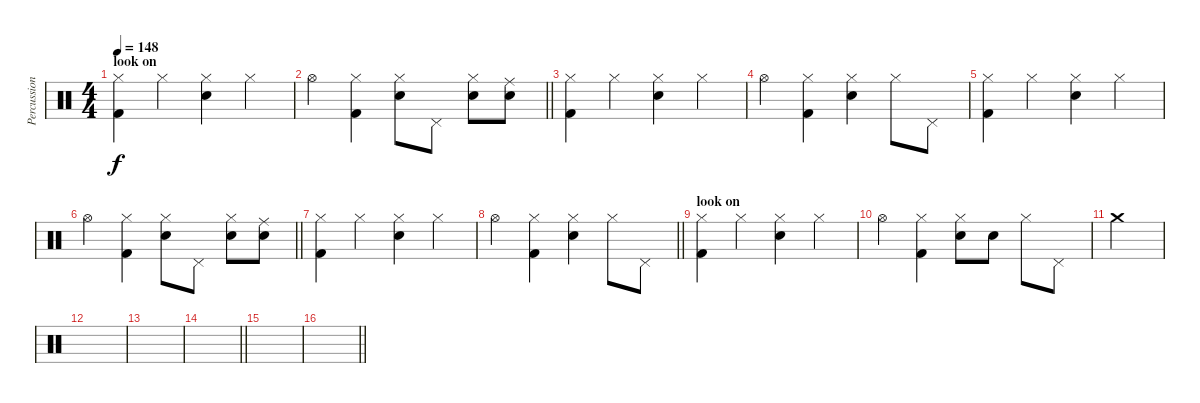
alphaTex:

\track ("Percussions" "Percussion") {instrument percussion}
\staff {score}
\articulation defaults
\ts (4 4)
\section ("" "look on")
\tempo 148
\clef neutral
\ks c
("Hi-Hat (closed)" "Kick (hit) 2").4{dy f} "Hi-Hat (closed)".4 ("Hi-Hat (closed)" "Snare (hit) 2").4 "Hi-Hat (closed)".4 |
\barLineRight lightlight "Hi-Hat (open)".4
("Hi-Hat (closed)" "Kick (hit) 2").4 ("Hi-Hat (closed)" "Snare (hit) 2").8 "Pedal Hi-Hat (hit)".8 ("Hi-Hat (closed)" "Snare (hit) 2").8 ("Ride (middle)" "Snare (hit) 2").8 |
("Hi-Hat (closed)" "Kick (hit) 2").4 "Hi-Hat (closed)".4 ("Hi-Hat (closed)" "Snare (hit) 2").4 "Hi-Hat (closed)".4 |
"Hi-Hat (open)".4 ("Hi-Hat (closed)" "Kick (hit) 2").4 ("Hi-Hat (closed)" "Snare (hit) 2").4 "Hi-Hat (closed)".8 "Pedal Hi-Hat (hit)".8 |
("Hi-Hat (closed)" "Kick (hit) 2").4 "Hi-Hat (closed)".4 ("Hi-Hat (closed)" "Snare (hit) 2").4 "Hi-Hat (closed)".4 |
\barLineRight lightlight "Hi-Hat (open)".4
("Hi-Hat (closed)" "Kick (hit) 2").4 ("Hi-Hat (closed)" "Snare (hit) 2").8 "Pedal Hi-Hat (hit)".8 ("Hi-Hat (closed)" "Snare (hit) 2").8 ("Ride (middle)" "Snare (hit) 2").8 |
("Hi-Hat (closed)" "Kick (hit) 2").4 "Hi-Hat (closed)".4 ("Hi-Hat (closed)" "Snare (hit) 2").4 "Hi-Hat (closed)".4 |
\barLineRight lightlight "Hi-Hat (open)".4
("Hi-Hat (closed)" "Kick (hit) 2").4 ("Hi-Hat (closed)" "Snare (hit) 2").4 "Hi-Hat (closed)".8 "Pedal Hi-Hat (hit)".8 |
\section ("" "look on")
("Hi-Hat (closed)" "Kick (hit) 2").4 "Hi-Hat (closed)".4 ("Hi-Hat (closed)" "Snare (hit) 2").4 "Hi-Hat (closed)".4 |
"Hi-Hat (open)".4 ("Hi-Hat (closed)" "Kick (hit) 2").4 ("Hi-Hat (closed)" "Snare (hit) 2").8 "Snare (hit) 2".8 "Hi-Hat (closed)".8 "Pedal Hi-Hat (hit)".8 |
"Crash medium (hit)".2 |
|
|
\barLineRight lightlight
|
|
\barLineRight lightlight
